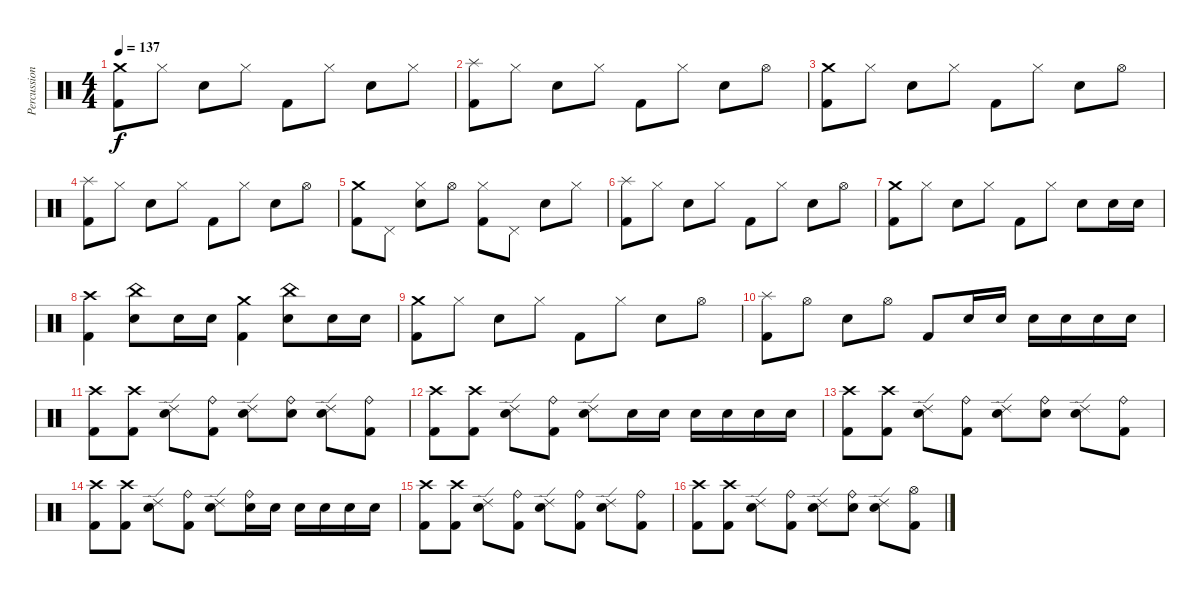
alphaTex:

\track ("Percussion" "Percussion") {instrument percussion}
\staff {score}
\articulation defaults
\ts (4 4)
\tempo 137
\clef neutral
\ks c
("Crash medium (hit)" "Kick (hit) 2").8{dy f} "Hi-Hat (closed)".8 "Electric Snare (hit)".8 "Hi-Hat (closed)".8 "Kick (hit) 2".8 "Hi-Hat (closed)".8 "Electric Snare (hit)".8 "Hi-Hat (closed)".8 |
("Splash (hit)" "Kick (hit) 2").8 "Hi-Hat (closed)".8 "Electric Snare (hit)".8 "Hi-Hat (closed)".8 "Kick (hit) 2".8 "Hi-Hat (closed)".8 "Electric Snare (hit)".8 "Hi-Hat (open)".8 |
("Crash medium (hit)" "Kick (hit) 2").8 "Hi-Hat (closed)".8 "Electric Snare (hit)".8 "Hi-Hat (closed)".8 "Kick (hit) 2".8 "Hi-Hat (closed)".8 "Electric Snare (hit)".8 "Hi-Hat (open)".8 |
("Splash (hit)" "Kick (hit) 2").8 "Hi-Hat (closed)".8 "Electric Snare (hit)".8 "Hi-Hat (closed)".8 "Kick (hit) 2".8 "Hi-Hat (closed)".8 "Electric Snare (hit)".8 "Hi-Hat (open)".8 |
("Crash medium (hit)" "Kick (hit) 2").8 "Pedal Hi-Hat (hit)".8 ("Hi-Hat (closed)" "Electric Snare (hit)").8 "Hi-Hat (open)".8 ("Hi-Hat (closed)" "Kick (hit) 2").8 "Pedal Hi-Hat (hit)".8 "Electric Snare (hit)".8 "Hi-Hat (closed)".8 |
("Splash (hit)" "Kick (hit) 2").8 "Hi-Hat (closed)".8 "Electric Snare (hit)".8 "Hi-Hat (closed)".8 "Kick (hit) 2".8 "Hi-Hat (closed)".8 "Electric Snare (hit)".8 "Hi-Hat (open)".8 |
("Crash medium (hit)" "Kick (hit) 2").8 "Hi-Hat (closed)".8 "Electric Snare (hit)".8 "Hi-Hat (closed)".8 "Kick (hit) 2".8 "Hi-Hat (closed)".8 "Electric Snare (hit)".8 "Electric Snare (hit)".16 "Electric Snare (hit)".16 |
("Crash high (hit)" "Kick (hit) 2").4 ("China (hit)" "Electric Snare (hit)").8 "Electric Snare (hit)".16 "Electric Snare (hit)".16 ("Crash medium (hit)" "Kick (hit) 2").4 ("China (hit)" "Electric Snare (hit)").8 "Electric Snare (hit)".16 "Electric Snare (hit)".16 |
("Crash medium (hit)" "Kick (hit) 2").8 "Hi-Hat (closed)".8 "Electric Snare (hit)".8 "Hi-Hat (closed)".8 "Kick (hit) 2".8 "Hi-Hat (closed)".8 "Electric Snare (hit)".8 "Hi-Hat (open)".8 |
("Splash (hit)" "Kick (hit) 2").8 "Hi-Hat (open)".8 "Electric Snare (hit)".8 "Hi-Hat (open)".8 "Kick (hit) 2".8 "Electric Snare (hit)".16 "Electric Snare (hit)".16 "Electric Snare (hit)".16 "Electric Snare (hit)".16 "Electric Snare (hit)".16 "Electric Snare (hit)".16 |
("Crash high (hit)" "Kick (hit) 2").8 ("Crash high (hit)" "Kick (hit) 2").8 ("Ride (edge) 2" "Electric Snare (hit)").8 ("Ride (bell)" "Kick (hit) 2").8 ("Ride (edge) 2" "Electric Snare (hit)").8 ("Ride (bell)" "Electric Snare (hit)").8 ("Ride (edge) 2" "Electric Snare (hit)").8 ("Ride (bell)" "Kick (hit) 2").8 |
("Crash high (hit)" "Kick (hit) 2").8 ("Crash high (hit)" "Kick (hit) 2").8 ("Ride (edge) 2" "Electric Snare (hit)").8 ("Ride (bell)" "Kick (hit) 2").8 ("Ride (edge) 2" "Electric Snare (hit)").8 "Electric Snare (hit)".16 "Electric Snare (hit)".16 "Electric Snare (hit)".16 "Electric Snare (hit)".16 "Electric Snare (hit)".16 "Electric Snare (hit)".16 |
("Crash high (hit)" "Kick (hit) 2").8 ("Crash high (hit)" "Kick (hit) 2").8 ("Ride (edge) 2" "Electric Snare (hit)").8 ("Ride (bell)" "Kick (hit) 2").8 ("Ride (edge) 2" "Electric Snare (hit)").8 ("Ride (bell)" "Electric Snare (hit)").8 ("Ride (edge) 2" "Electric Snare (hit)").8 ("Ride (bell)" "Kick (hit) 2").8 |
("Crash high (hit)" "Kick (hit) 2").8 ("Crash high (hit)" "Kick (hit) 2").8 ("Ride (edge) 2" "Electric Snare (hit)").8 ("Ride (bell)" "Kick (hit) 2").8 ("Ride (edge) 2" "Electric Snare (hit)").8 ("Ride (bell)" "Electric Snare (hit)").16 "Electric Snare (hit)".16 "Electric Snare (hit)".16 "Electric Snare (hit)".16 "Electric Snare (hit)".16 "Electric Snare (hit)".16 |
("Crash high (hit)" "Kick (hit) 2").8 ("Crash high (hit)" "Kick (hit) 2").8 ("Ride (edge) 2" "Electric Snare (hit)").8 ("Ride (bell)" "Kick (hit) 2").8 ("Ride (edge) 2" "Electric Snare (hit)").8 ("Ride (bell)" "Kick (hit) 2").8 ("Ride (edge) 2" "Electric Snare (hit)").8 ("Ride (bell)" "Kick (hit) 2").8 |
("Crash high (hit)" "Kick (hit) 2").8 ("Crash high (hit)" "Kick (hit) 2").8 ("Ride (edge) 2" "Electric Snare (hit)").8 ("Ride (bell)" "Kick (hit) 2").8 ("Ride (edge) 2" "Electric Snare (hit)").8 ("Ride (bell)" "Electric Snare (hit)").8 ("Ride (edge) 2" "Electric Snare (hit)").8 ("Hi-Hat (open)" "Kick (hit) 2").8
